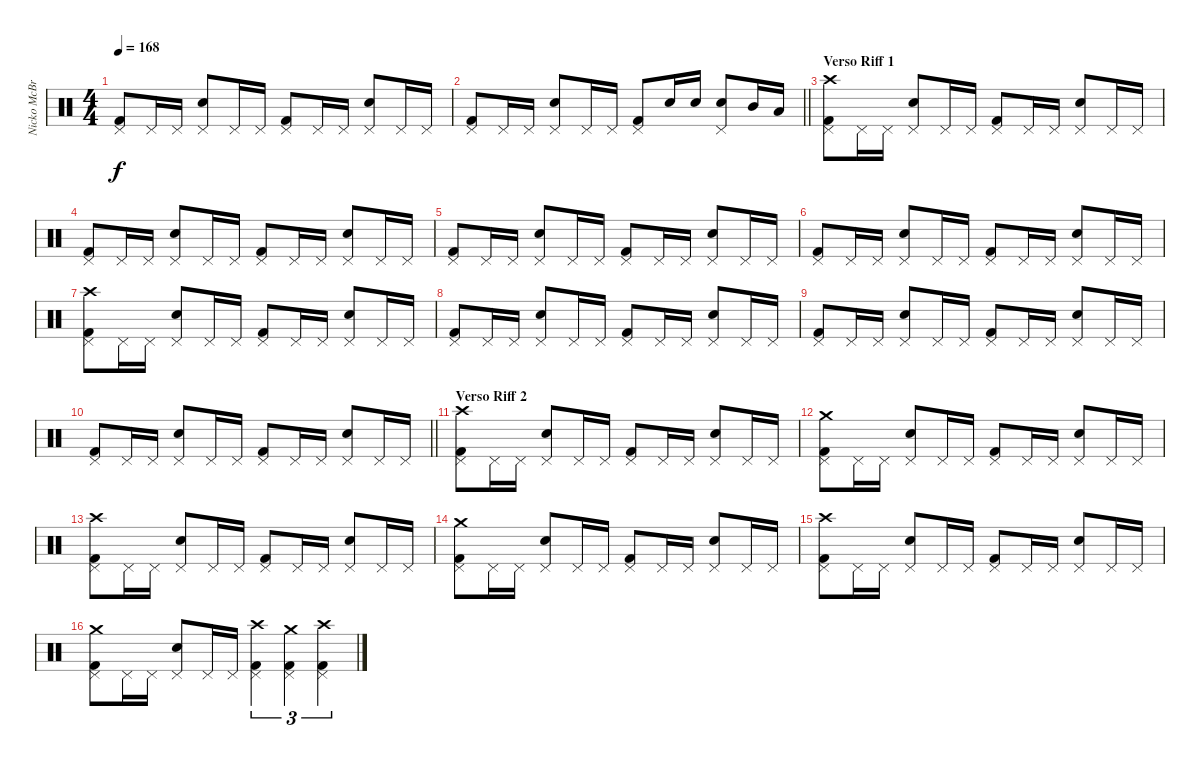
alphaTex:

\track ("Nicko McBrain" "Nicko McBr") {instrument percussion}
\staff {score}
\articulation defaults
\ts (4 4)
\tempo 168
\clef neutral
\ks c
("Kick (hit) 2" "Pedal Hi-Hat (hit)").8{dy f} "Pedal Hi-Hat (hit)".16 "Pedal Hi-Hat (hit)".16 ("Snare (hit) 2" "Pedal Hi-Hat (hit)").8 "Pedal Hi-Hat (hit)".16 "Pedal Hi-Hat (hit)".16 ("Kick (hit) 2" "Pedal Hi-Hat (hit)").8 "Pedal Hi-Hat (hit)".16 "Pedal Hi-Hat (hit)".16 ("Snare (hit) 2" "Pedal Hi-Hat (hit)").8 "Pedal Hi-Hat (hit)".16 "Pedal Hi-Hat (hit)".16 |
\barLineRight lightlight
("Kick (hit) 2" "Pedal Hi-Hat (hit)").8 "Pedal Hi-Hat (hit)".16 "Pedal Hi-Hat (hit)".16 ("Snare (hit) 2" "Pedal Hi-Hat (hit)").8 "Pedal Hi-Hat (hit)".16 "Pedal Hi-Hat (hit)".16 ("Kick (hit) 2" "Pedal Hi-Hat (hit)").8 "Snare (hit) 2".16 "Snare (hit) 2".16 ("Snare (hit) 2" "Pedal Hi-Hat (hit)").8 "Mid Tom (hit)".16 "Low Tom (hit)".16 |
\section ("" "Verso Riff 1")
("Kick (hit) 2" "Pedal Hi-Hat (hit)" "Crash high (hit)").8 "Pedal Hi-Hat (hit)".16 "Pedal Hi-Hat (hit)".16 ("Snare (hit) 2" "Pedal Hi-Hat (hit)").8 "Pedal Hi-Hat (hit)".16 "Pedal Hi-Hat (hit)".16 ("Kick (hit) 2" "Pedal Hi-Hat (hit)").8 "Pedal Hi-Hat (hit)".16 "Pedal Hi-Hat (hit)".16 ("Snare (hit) 2" "Pedal Hi-Hat (hit)").8 "Pedal Hi-Hat (hit)".16 "Pedal Hi-Hat (hit)".16 |
("Kick (hit) 2" "Pedal Hi-Hat (hit)").8 "Pedal Hi-Hat (hit)".16 "Pedal Hi-Hat (hit)".16 ("Snare (hit) 2" "Pedal Hi-Hat (hit)").8 "Pedal Hi-Hat (hit)".16 "Pedal Hi-Hat (hit)".16 ("Kick (hit) 2" "Pedal Hi-Hat (hit)").8 "Pedal Hi-Hat (hit)".16 "Pedal Hi-Hat (hit)".16 ("Snare (hit) 2" "Pedal Hi-Hat (hit)").8 "Pedal Hi-Hat (hit)".16 "Pedal Hi-Hat (hit)".16 |
("Kick (hit) 2" "Pedal Hi-Hat (hit)").8 "Pedal Hi-Hat (hit)".16 "Pedal Hi-Hat (hit)".16 ("Snare (hit) 2" "Pedal Hi-Hat (hit)").8 "Pedal Hi-Hat (hit)".16 "Pedal Hi-Hat (hit)".16 ("Kick (hit) 2" "Pedal Hi-Hat (hit)").8 "Pedal Hi-Hat (hit)".16 "Pedal Hi-Hat (hit)".16 ("Snare (hit) 2" "Pedal Hi-Hat (hit)").8 "Pedal Hi-Hat (hit)".16 "Pedal Hi-Hat (hit)".16 |
("Kick (hit) 2" "Pedal Hi-Hat (hit)").8 "Pedal Hi-Hat (hit)".16 "Pedal Hi-Hat (hit)".16 ("Snare (hit) 2" "Pedal Hi-Hat (hit)").8 "Pedal Hi-Hat (hit)".16 "Pedal Hi-Hat (hit)".16 ("Kick (hit) 2" "Pedal Hi-Hat (hit)").8 "Pedal Hi-Hat (hit)".16 "Pedal Hi-Hat (hit)".16 ("Snare (hit) 2" "Pedal Hi-Hat (hit)").8 "Pedal Hi-Hat (hit)".16 "Pedal Hi-Hat (hit)".16 |
("Kick (hit) 2" "Pedal Hi-Hat (hit)" "Crash high (hit)").8 "Pedal Hi-Hat (hit)".16 "Pedal Hi-Hat (hit)".16 ("Snare (hit) 2" "Pedal Hi-Hat (hit)").8 "Pedal Hi-Hat (hit)".16 "Pedal Hi-Hat (hit)".16 ("Kick (hit) 2" "Pedal Hi-Hat (hit)").8 "Pedal Hi-Hat (hit)".16 "Pedal Hi-Hat (hit)".16 ("Snare (hit) 2" "Pedal Hi-Hat (hit)").8 "Pedal Hi-Hat (hit)".16 "Pedal Hi-Hat (hit)".16 |
("Kick (hit) 2" "Pedal Hi-Hat (hit)").8 "Pedal Hi-Hat (hit)".16 "Pedal Hi-Hat (hit)".16 ("Snare (hit) 2" "Pedal Hi-Hat (hit)").8 "Pedal Hi-Hat (hit)".16 "Pedal Hi-Hat (hit)".16 ("Kick (hit) 2" "Pedal Hi-Hat (hit)").8 "Pedal Hi-Hat (hit)".16 "Pedal Hi-Hat (hit)".16 ("Snare (hit) 2" "Pedal Hi-Hat (hit)").8 "Pedal Hi-Hat (hit)".16 "Pedal Hi-Hat (hit)".16 |
("Kick (hit) 2" "Pedal Hi-Hat (hit)").8 "Pedal Hi-Hat (hit)".16 "Pedal Hi-Hat (hit)".16 ("Snare (hit) 2" "Pedal Hi-Hat (hit)").8 "Pedal Hi-Hat (hit)".16 "Pedal Hi-Hat (hit)".16 ("Kick (hit) 2" "Pedal Hi-Hat (hit)").8 "Pedal Hi-Hat (hit)".16 "Pedal Hi-Hat (hit)".16 ("Snare (hit) 2" "Pedal Hi-Hat (hit)").8 "Pedal Hi-Hat (hit)".16 "Pedal Hi-Hat (hit)".16 |
\barLineRight lightlight
("Kick (hit) 2" "Pedal Hi-Hat (hit)").8 "Pedal Hi-Hat (hit)".16 "Pedal Hi-Hat (hit)".16 ("Snare (hit) 2" "Pedal Hi-Hat (hit)").8 "Pedal Hi-Hat (hit)".16 "Pedal Hi-Hat (hit)".16 ("Kick (hit) 2" "Pedal Hi-Hat (hit)").8 "Pedal Hi-Hat (hit)".16 "Pedal Hi-Hat (hit)".16 ("Snare (hit) 2" "Pedal Hi-Hat (hit)").8 "Pedal Hi-Hat (hit)".16 "Pedal Hi-Hat (hit)".16 |
\section ("" "Verso Riff 2")
("Kick (hit) 2" "Pedal Hi-Hat (hit)" "Crash high (hit)").8 "Pedal Hi-Hat (hit)".16 "Pedal Hi-Hat (hit)".16 ("Snare (hit) 2" "Pedal Hi-Hat (hit)").8 "Pedal Hi-Hat (hit)".16 "Pedal Hi-Hat (hit)".16 ("Kick (hit) 2" "Pedal Hi-Hat (hit)").8 "Pedal Hi-Hat (hit)".16 "Pedal Hi-Hat (hit)".16 ("Snare (hit) 2" "Pedal Hi-Hat (hit)").8 "Pedal Hi-Hat (hit)".16 "Pedal Hi-Hat (hit)".16 |
("Kick (hit) 2" "Pedal Hi-Hat (hit)" "Crash medium (hit)").8 "Pedal Hi-Hat (hit)".16 "Pedal Hi-Hat (hit)".16 ("Snare (hit) 2" "Pedal Hi-Hat (hit)").8 "Pedal Hi-Hat (hit)".16 "Pedal Hi-Hat (hit)".16 ("Kick (hit) 2" "Pedal Hi-Hat (hit)").8 "Pedal Hi-Hat (hit)".16 "Pedal Hi-Hat (hit)".16 ("Snare (hit) 2" "Pedal Hi-Hat (hit)").8 "Pedal Hi-Hat (hit)".16 "Pedal Hi-Hat (hit)".16 |
("Kick (hit) 2" "Pedal Hi-Hat (hit)" "Crash high (hit)").8 "Pedal Hi-Hat (hit)".16 "Pedal Hi-Hat (hit)".16 ("Snare (hit) 2" "Pedal Hi-Hat (hit)").8 "Pedal Hi-Hat (hit)".16 "Pedal Hi-Hat (hit)".16 ("Kick (hit) 2" "Pedal Hi-Hat (hit)").8 "Pedal Hi-Hat (hit)".16 "Pedal Hi-Hat (hit)".16 ("Snare (hit) 2" "Pedal Hi-Hat (hit)").8 "Pedal Hi-Hat (hit)".16 "Pedal Hi-Hat (hit)".16 |
("Kick (hit) 2" "Pedal Hi-Hat (hit)" "Crash medium (hit)").8 "Pedal Hi-Hat (hit)".16 "Pedal Hi-Hat (hit)".16 ("Snare (hit) 2" "Pedal Hi-Hat (hit)").8 "Pedal Hi-Hat (hit)".16 "Pedal Hi-Hat (hit)".16 ("Kick (hit) 2" "Pedal Hi-Hat (hit)").8 "Pedal Hi-Hat (hit)".16 "Pedal Hi-Hat (hit)".16 ("Snare (hit) 2" "Pedal Hi-Hat (hit)").8 "Pedal Hi-Hat (hit)".16 "Pedal Hi-Hat (hit)".16 |
("Kick (hit) 2" "Pedal Hi-Hat (hit)" "Crash high (hit)").8 "Pedal Hi-Hat (hit)".16 "Pedal Hi-Hat (hit)".16 ("Snare (hit) 2" "Pedal Hi-Hat (hit)").8 "Pedal Hi-Hat (hit)".16 "Pedal Hi-Hat (hit)".16 ("Kick (hit) 2" "Pedal Hi-Hat (hit)").8 "Pedal Hi-Hat (hit)".16 "Pedal Hi-Hat (hit)".16 ("Snare (hit) 2" "Pedal Hi-Hat (hit)").8 "Pedal Hi-Hat (hit)".16 "Pedal Hi-Hat (hit)".16 |
("Kick (hit) 2" "Pedal Hi-Hat (hit)" "Crash medium (hit)").8 "Pedal Hi-Hat (hit)".16 "Pedal Hi-Hat (hit)".16 ("Snare (hit) 2" "Pedal Hi-Hat (hit)").8 "Pedal Hi-Hat (hit)".16 "Pedal Hi-Hat (hit)".16 ("Kick (hit) 2" "Pedal Hi-Hat (hit)" "Crash high (hit)").4{tu (3 2)} ("Kick (hit) 2" "Pedal Hi-Hat (hit)" "Crash medium (hit)").4{tu (3 2)} ("Kick (hit) 2" "Pedal Hi-Hat (hit)" "Crash high (hit)").4{tu (3 2)}
